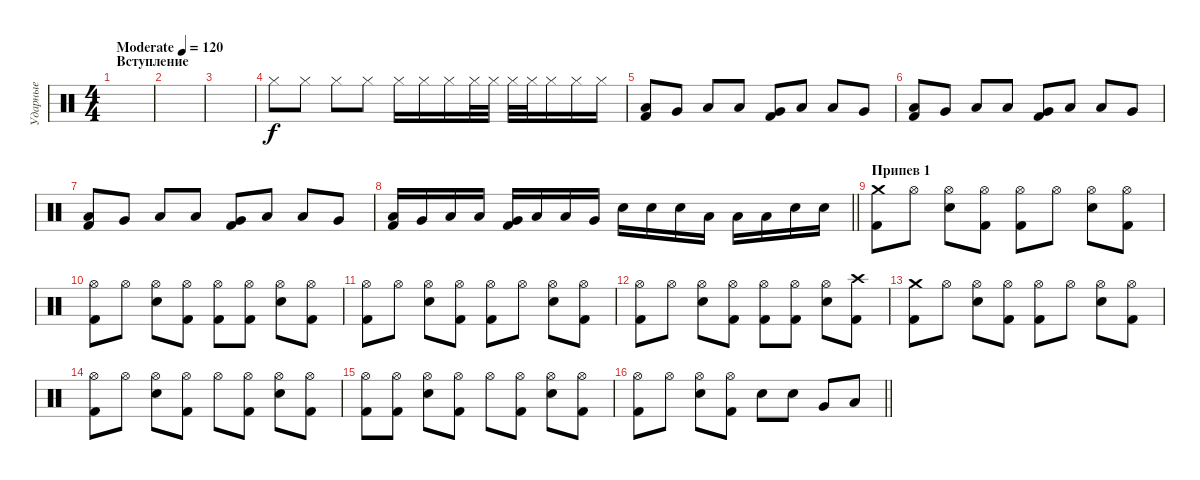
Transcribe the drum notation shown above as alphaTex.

\track ("Ударные" "Ударные") {instrument percussion}
\staff {score}
\articulation defaults
\ts (4 4)
\section ("" "Вступление")
\tempo (120 "Moderate")
\clef neutral
\ks c
|
|
|
"Hi-Hat (closed)".8 "Hi-Hat (closed)".8 "Hi-Hat (closed)".8 "Hi-Hat (closed)".8 "Hi-Hat (closed)".16 "Hi-Hat (closed)".16 "Hi-Hat (closed)".16 "Hi-Hat (closed)".32 "Hi-Hat (closed)".32 "Hi-Hat (closed)".32 "Hi-Hat (closed)".32 "Hi-Hat (closed)".16 "Hi-Hat (closed)".16 "Hi-Hat (closed)".16 |
("Low Floor Tom (hit)" "Kick (hit) 2").8 "Very Low Tom (hit)".8 "Low Tom (hit)".8 "Low Floor Tom (hit)".8 ("Very Low Tom (hit)" "Kick (hit) 2").8 "Low Tom (hit)".8 "Low Floor Tom (hit)".8 "Very Low Tom (hit)".8 |
("Low Floor Tom (hit)" "Kick (hit) 2").8 "Very Low Tom (hit)".8 "Low Tom (hit)".8 "Low Floor Tom (hit)".8 ("Very Low Tom (hit)" "Kick (hit) 2").8 "Low Tom (hit)".8 "Low Floor Tom (hit)".8 "Very Low Tom (hit)".8 |
("Low Floor Tom (hit)" "Kick (hit) 2").8 "Very Low Tom (hit)".8 "Low Tom (hit)".8 "Low Floor Tom (hit)".8 ("Very Low Tom (hit)" "Kick (hit) 2").8 "Low Tom (hit)".8 "Low Floor Tom (hit)".8 "Very Low Tom (hit)".8 |
\barLineRight lightlight
("Low Floor Tom (hit)" "Kick (hit) 2").16 "Very Low Tom (hit)".16 "Low Tom (hit)".16 "Low Floor Tom (hit)".16 ("Very Low Tom (hit)" "Kick (hit) 2").16 "Low Tom (hit)".16 "Low Floor Tom (hit)".16 "Very Low Tom (hit)".16 "Snare (hit) 2".16 "Snare (hit) 2".16 "Snare (hit) 2".16 "Low Floor Tom (hit)".16 "Low Floor Tom (hit)".16 "Low Floor Tom (hit)".16 "Snare (hit) 2".16 "Snare (hit) 2".16 |
\section ("" "Припев 1")
("Crash medium (hit)" "Kick (hit) 2").8 "Hi-Hat (open)".8 ("Hi-Hat (open)" "Snare (hit) 2").8 ("Hi-Hat (open)" "Kick (hit) 2").8 ("Hi-Hat (open)" "Kick (hit) 2").8 "Hi-Hat (open)".8 ("Hi-Hat (open)" "Snare (hit) 2").8 ("Hi-Hat (open)" "Kick (hit) 2").8 |
("Hi-Hat (open)" "Kick (hit) 2").8 "Hi-Hat (open)".8 ("Hi-Hat (open)" "Snare (hit) 2").8 ("Hi-Hat (open)" "Kick (hit) 2").8 ("Hi-Hat (open)" "Kick (hit) 2").8 ("Hi-Hat (open)" "Kick (hit) 2").8 ("Hi-Hat (open)" "Snare (hit) 2").8 ("Hi-Hat (open)" "Kick (hit) 2").8 |
("Hi-Hat (open)" "Kick (hit) 2").8 "Hi-Hat (open)".8 ("Hi-Hat (open)" "Snare (hit) 2").8 ("Hi-Hat (open)" "Kick (hit) 2").8 ("Hi-Hat (open)" "Kick (hit) 2").8 "Hi-Hat (open)".8 ("Hi-Hat (open)" "Snare (hit) 2").8 ("Hi-Hat (open)" "Kick (hit) 2").8 |
("Hi-Hat (open)" "Kick (hit) 2").8 "Hi-Hat (open)".8 ("Hi-Hat (open)" "Snare (hit) 2").8 ("Hi-Hat (open)" "Kick (hit) 2").8 ("Hi-Hat (open)" "Kick (hit) 2").8 ("Hi-Hat (open)" "Kick (hit) 2").8 ("Hi-Hat (open)" "Snare (hit) 2").8 ("Crash high (hit)" "Kick (hit) 2").8 |
("Crash medium (hit)" "Kick (hit) 2").8 "Hi-Hat (open)".8 ("Hi-Hat (open)" "Snare (hit) 2").8 ("Hi-Hat (open)" "Kick (hit) 2").8 ("Hi-Hat (open)" "Kick (hit) 2").8 "Hi-Hat (open)".8 ("Hi-Hat (open)" "Snare (hit) 2").8 ("Hi-Hat (open)" "Kick (hit) 2").8 |
("Hi-Hat (open)" "Kick (hit) 2").8 "Hi-Hat (open)".8 ("Hi-Hat (open)" "Snare (hit) 2").8 ("Hi-Hat (open)" "Kick (hit) 2").8 "Hi-Hat (open)".8 ("Hi-Hat (open)" "Kick (hit) 2").8 ("Hi-Hat (open)" "Snare (hit) 2").8 ("Hi-Hat (open)" "Kick (hit) 2").8 |
("Hi-Hat (open)" "Kick (hit) 2").8 ("Hi-Hat (open)" "Kick (hit) 2").8 ("Hi-Hat (open)" "Snare (hit) 2").8 ("Hi-Hat (open)" "Kick (hit) 2").8 "Hi-Hat (open)".8 ("Hi-Hat (open)" "Kick (hit) 2").8 ("Hi-Hat (open)" "Snare (hit) 2").8 ("Hi-Hat (open)" "Kick (hit) 2").8 |
\barLineRight lightlight
("Hi-Hat (open)" "Kick (hit) 2").8 "Hi-Hat (open)".8 ("Hi-Hat (open)" "Snare (hit) 2").8 ("Hi-Hat (open)" "Kick (hit) 2").8 "Snare (hit) 2".8 "Snare (hit) 2".8 "Very Low Tom (hit)".8 "Low Tom (hit)".8
